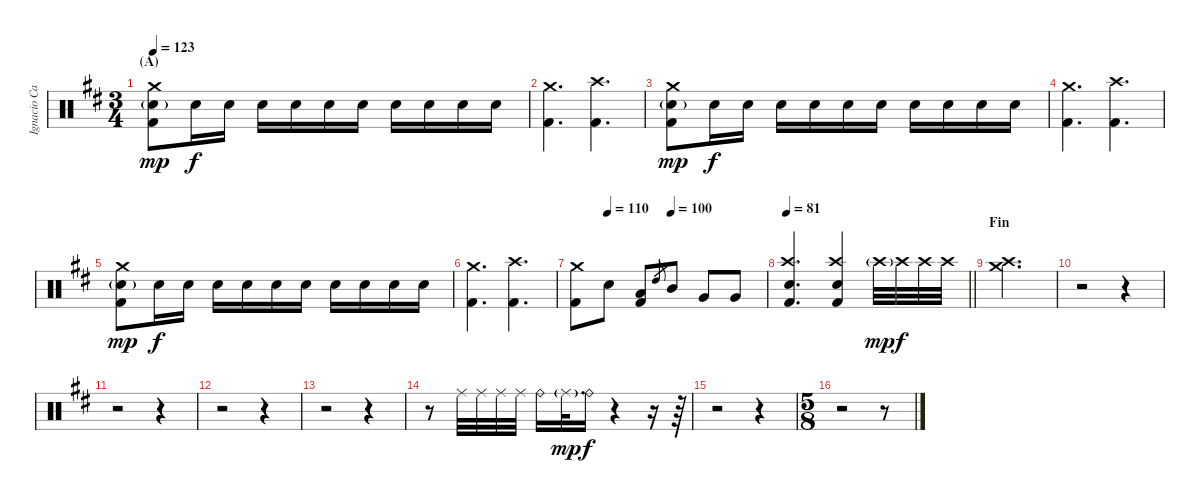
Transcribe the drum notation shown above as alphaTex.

\track ("Ignacio Cantera - Batería" "Ignacio Ca") {instrument percussion}
\staff {score}
\articulation defaults
\ts (3 4)
\section ("" "(A)")
\tempo 123
\clef neutral
\ks bminor
("Crash medium (hit)" "Electric Snare (hit)"{g} "Kick (hit) 2").8{dy mp} "Electric Snare (hit)".16{dy f} "Electric Snare (hit)".16 "Electric Snare (hit)".16 "Electric Snare (hit)".16 "Electric Snare (hit)".16 "Electric Snare (hit)".16 "Electric Snare (hit)".16 "Electric Snare (hit)".16 "Electric Snare (hit)".16 "Electric Snare (hit)".16 |
("Crash medium (hit)" "Kick (hit) 2").4{d} ("Crash high (hit)" "Kick (hit) 2").4{d} |
("Crash medium (hit)" "Electric Snare (hit)"{g} "Kick (hit) 2").8{dy mp} "Electric Snare (hit)".16{dy f} "Electric Snare (hit)".16 "Electric Snare (hit)".16 "Electric Snare (hit)".16 "Electric Snare (hit)".16 "Electric Snare (hit)".16 "Electric Snare (hit)".16 "Electric Snare (hit)".16 "Electric Snare (hit)".16 "Electric Snare (hit)".16 |
("Crash medium (hit)" "Kick (hit) 2").4{d} ("Crash high (hit)" "Kick (hit) 2").4{d} |
("Crash medium (hit)" "Electric Snare (hit)"{g} "Kick (hit) 2").8{dy mp} "Electric Snare (hit)".16{dy f} "Electric Snare (hit)".16 "Electric Snare (hit)".16 "Electric Snare (hit)".16 "Electric Snare (hit)".16 "Electric Snare (hit)".16 "Electric Snare (hit)".16 "Electric Snare (hit)".16 "Electric Snare (hit)".16 "Electric Snare (hit)".16 |
("Crash medium (hit)" "Kick (hit) 2").4{d} ("Crash high (hit)" "Kick (hit) 2").4{d} |
\tempo (110 0.16666666666666666)
\tempo (100 0.5)
("Crash medium (hit)" "Kick (hit) 2").8 "Electric Snare (hit)".8 ("Low Tom (hit)" "Kick (hit) 2").8 "High Tom (hit)".8{gr} "Mid Tom (hit)".8 "Very Low Tom (hit)".8 "Very Low Tom (hit)".8 |
\tempo 81
\barLineRight lightlight
("Crash high (hit)" "Snare (hit) 2" "Kick (hit) 2").4{d} ("Crash high (hit)" "Snare (hit) 2" "Kick (hit) 2").4 "Crash high (hit)"{g}.32{dy mp} "Crash high (hit)".32{dy f} "Crash high (hit)".32 "Crash high (hit)".32 |
\section ("" "Fin")
("Crash high (hit)" "Crash medium (hit)").2{d} |
r.2 r.4 |
r.2 r.4 |
r.2 r.4 |
r.2 r.4 |
r.8 "Ride (middle)".32{volume 12 balance 3} "Ride (middle)".32 "Ride (middle)".32 "Ride (middle)".32 "Ride (bell)".16 "Ride (middle)"{g}.32{d dy mp} "Ride (bell)".16{dy f} r.4 r.16 r.64 |
r.2 r.4 |
\ts (5 8)
r.2 r.8
